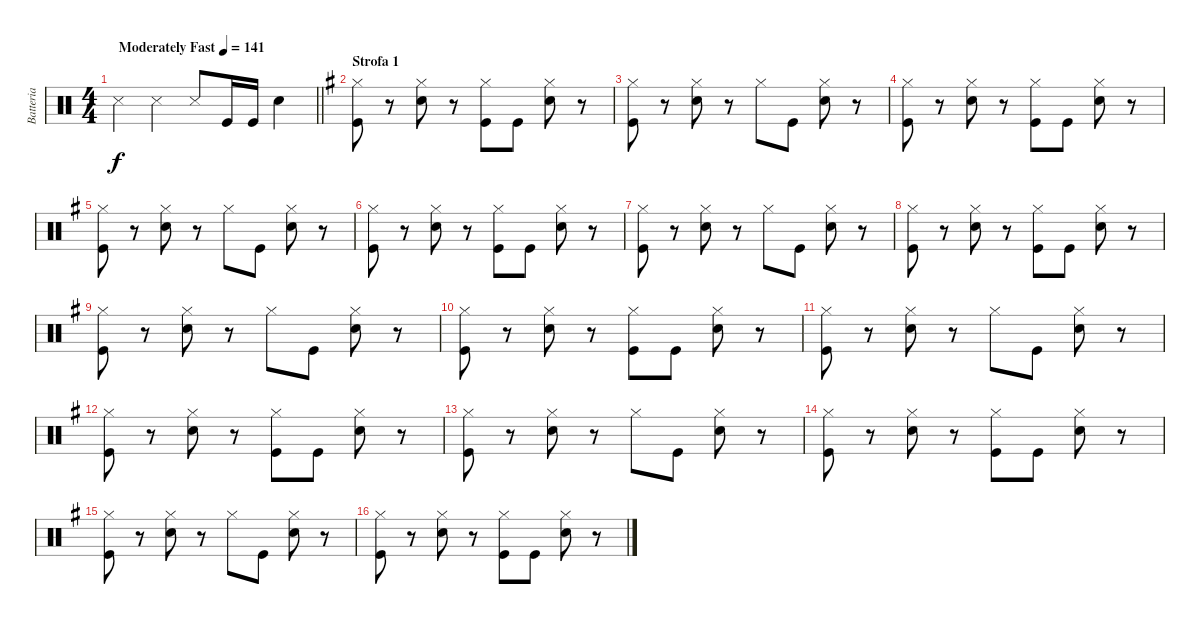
\track ("Batteria" "Batteria") {instrument percussion}
\staff {score}
\articulation defaults
\ts (4 4)
\tempo (141 "Moderately Fast")
\clef neutral
\barLineRight lightlight
\ks c "Snare (side stick) 3".4{dy f} "Snare (side stick) 3".4 "Snare (side stick) 3".8 "Kick (hit)".16 "Kick (hit)".16 "Electric Snare (hit)".4
|
\section ("" "Strofa 1")
\ks eminor
("Hi-Hat (closed)" "Kick (hit)").8 r.8 ("Hi-Hat (closed)" "Electric Snare (hit)").8 r.8 ("Hi-Hat (closed)" "Kick (hit)").8 "Kick (hit)".8 ("Hi-Hat (closed)" "Electric Snare (hit)").8 r.8 |
("Hi-Hat (closed)" "Kick (hit)").8 r.8 ("Hi-Hat (closed)" "Electric Snare (hit)").8 r.8 "Hi-Hat (closed)".8 "Kick (hit)".8 ("Hi-Hat (closed)" "Electric Snare (hit)").8 r.8 |
("Hi-Hat (closed)" "Kick (hit)").8 r.8 ("Hi-Hat (closed)" "Electric Snare (hit)").8 r.8 ("Hi-Hat (closed)" "Kick (hit)").8 "Kick (hit)".8 ("Hi-Hat (closed)" "Electric Snare (hit)").8 r.8 |
("Hi-Hat (closed)" "Kick (hit)").8 r.8 ("Hi-Hat (closed)" "Electric Snare (hit)").8 r.8 "Hi-Hat (closed)".8 "Kick (hit)".8 ("Hi-Hat (closed)" "Electric Snare (hit)").8 r.8 |
("Hi-Hat (closed)" "Kick (hit)").8 r.8 ("Hi-Hat (closed)" "Electric Snare (hit)").8 r.8 ("Hi-Hat (closed)" "Kick (hit)").8 "Kick (hit)".8 ("Hi-Hat (closed)" "Electric Snare (hit)").8 r.8 |
("Hi-Hat (closed)" "Kick (hit)").8 r.8 ("Hi-Hat (closed)" "Electric Snare (hit)").8 r.8 "Hi-Hat (closed)".8 "Kick (hit)".8 ("Hi-Hat (closed)" "Electric Snare (hit)").8 r.8 |
("Hi-Hat (closed)" "Kick (hit)").8 r.8 ("Hi-Hat (closed)" "Electric Snare (hit)").8 r.8 ("Hi-Hat (closed)" "Kick (hit)").8 "Kick (hit)".8 ("Hi-Hat (closed)" "Electric Snare (hit)").8 r.8 |
("Hi-Hat (closed)" "Kick (hit)").8 r.8 ("Hi-Hat (closed)" "Electric Snare (hit)").8 r.8 "Hi-Hat (closed)".8 "Kick (hit)".8 ("Hi-Hat (closed)" "Electric Snare (hit)").8 r.8 |
("Hi-Hat (closed)" "Kick (hit)").8 r.8 ("Hi-Hat (closed)" "Electric Snare (hit)").8 r.8 ("Hi-Hat (closed)" "Kick (hit)").8 "Kick (hit)".8 ("Hi-Hat (closed)" "Electric Snare (hit)").8 r.8 |
("Hi-Hat (closed)" "Kick (hit)").8 r.8 ("Hi-Hat (closed)" "Electric Snare (hit)").8 r.8 "Hi-Hat (closed)".8 "Kick (hit)".8 ("Hi-Hat (closed)" "Electric Snare (hit)").8 r.8 |
("Hi-Hat (closed)" "Kick (hit)").8 r.8 ("Hi-Hat (closed)" "Electric Snare (hit)").8 r.8 ("Hi-Hat (closed)" "Kick (hit)").8 "Kick (hit)".8 ("Hi-Hat (closed)" "Electric Snare (hit)").8 r.8 |
("Hi-Hat (closed)" "Kick (hit)").8 r.8 ("Hi-Hat (closed)" "Electric Snare (hit)").8 r.8 "Hi-Hat (closed)".8 "Kick (hit)".8 ("Hi-Hat (closed)" "Electric Snare (hit)").8 r.8 |
("Hi-Hat (closed)" "Kick (hit)").8 r.8 ("Hi-Hat (closed)" "Electric Snare (hit)").8 r.8 ("Hi-Hat (closed)" "Kick (hit)").8 "Kick (hit)".8 ("Hi-Hat (closed)" "Electric Snare (hit)").8 r.8 |
("Hi-Hat (closed)" "Kick (hit)").8 r.8 ("Hi-Hat (closed)" "Electric Snare (hit)").8 r.8 "Hi-Hat (closed)".8 "Kick (hit)".8 ("Hi-Hat (closed)" "Electric Snare (hit)").8 r.8 |
("Hi-Hat (closed)" "Kick (hit)").8 r.8 ("Hi-Hat (closed)" "Electric Snare (hit)").8 r.8 ("Hi-Hat (closed)" "Kick (hit)").8 "Kick (hit)".8 ("Hi-Hat (closed)" "Electric Snare (hit)").8 r.8
